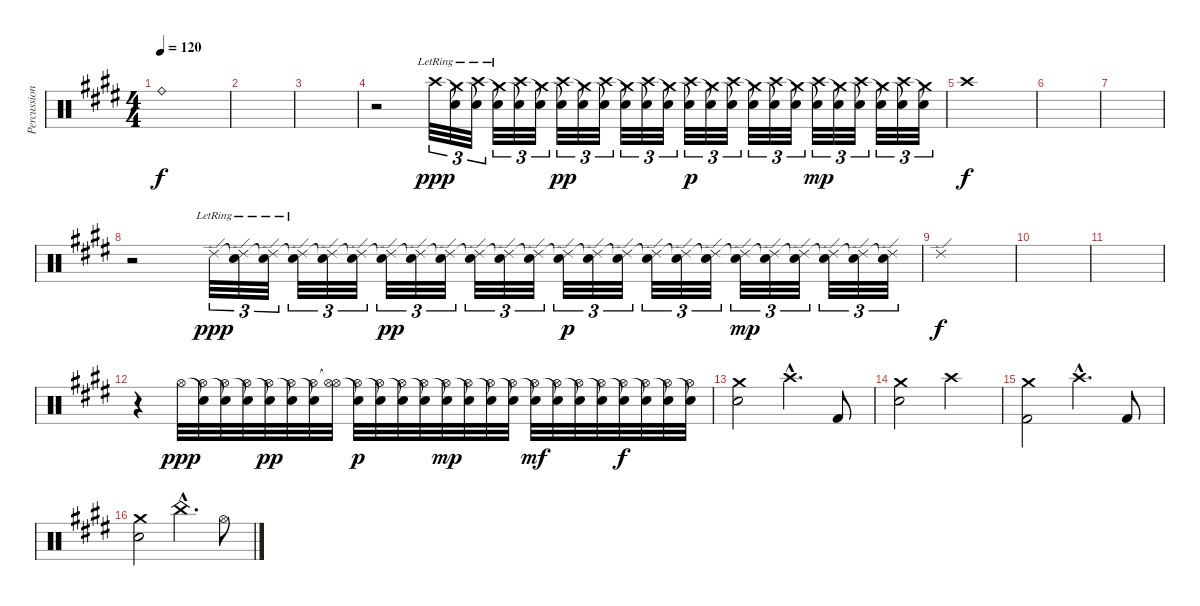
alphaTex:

\track ("Percussion" "Percussion") {instrument percussion}
\staff {score}
\articulation defaults
\ts (4 4)
\tempo 120
\clef neutral
\ks c#minor "Ride (bell)".1{dy f}
|
|
|
r.2 "Crash high (hit)"{lr}.32{tu (3 2) dy ppp} ("Snare (hit)"{t} "Crash medium (hit)"{lr}).32{tu (3 2)} ("Crash high (hit)"{lr} "Snare (hit)"{t}).32{tu (3 2)} ("Snare (hit)"{t} "Crash medium (hit)"{lr}).32{tu (3 2)} ("Crash high (hit)" "Snare (hit)"{t}).32{tu (3 2)} ("Snare (hit)"{t} "Crash medium (hit)").32{tu (3 2)} ("Crash high (hit)" "Snare (hit)"{t}).32{tu (3 2) dy pp} ("Snare (hit)"{t} "Crash medium (hit)").32{tu (3 2)} ("Crash high (hit)" "Snare (hit)"{t}).32{tu (3 2)} ("Snare (hit)"{t} "Crash medium (hit)").32{tu (3 2)} ("Crash high (hit)" "Snare (hit)"{t}).32{tu (3 2)} ("Snare (hit)"{t} "Crash medium (hit)").32{tu (3 2)} ("Crash high (hit)" "Snare (hit)"{t}).32{tu (3 2) dy p} ("Snare (hit)"{t} "Crash medium (hit)").32{tu (3 2)} ("Crash high (hit)" "Snare (hit)"{t}).32{tu (3 2)} ("Snare (hit)"{t} "Crash medium (hit)").32{tu (3 2)} ("Crash high (hit)" "Snare (hit)"{t}).32{tu (3 2)} ("Snare (hit)"{t} "Crash medium (hit)").32{tu (3 2)} ("Crash high (hit)" "Snare (hit)"{t}).32{tu (3 2) dy mp} ("Snare (hit)"{t} "Crash medium (hit)").32{tu (3 2)} ("Crash high (hit)" "Snare (hit)"{t}).32{tu (3 2)} ("Snare (hit)"{t} "Crash medium (hit)").32{tu (3 2)} ("Crash high (hit)" "Snare (hit)"{t}).32{tu (3 2)} ("Snare (hit)"{t} "Crash medium (hit)").32{tu (3 2)} |
"Crash high (hit)".1{dy f} |
|
|
r.2 "Ride (edge) 2"{lr}.32{tu (3 2) dy ppp} ("Snare (hit)"{t} "Ride (edge) 2"{lr}).32{tu (3 2)} ("Ride (edge) 2"{lr} "Snare (hit)"{t}).32{tu (3 2)} ("Snare (hit)"{t} "Ride (edge) 2"{lr}).32{tu (3 2)} ("Ride (edge) 2" "Snare (hit)"{t}).32{tu (3 2)} ("Snare (hit)"{t} "Ride (edge) 2").32{tu (3 2)} ("Ride (edge) 2" "Snare (hit)"{t}).32{tu (3 2) dy pp} ("Snare (hit)"{t} "Ride (edge) 2").32{tu (3 2)} ("Ride (edge) 2" "Snare (hit)"{t}).32{tu (3 2)} ("Snare (hit)"{t} "Ride (edge) 2").32{tu (3 2)} ("Ride (edge) 2" "Snare (hit)"{t}).32{tu (3 2)} ("Snare (hit)"{t} "Ride (edge) 2").32{tu (3 2)} ("Ride (edge) 2" "Snare (hit)"{t}).32{tu (3 2) dy p} ("Snare (hit)"{t} "Ride (edge) 2").32{tu (3 2)} ("Ride (edge) 2" "Snare (hit)"{t}).32{tu (3 2)} ("Snare (hit)"{t} "Ride (edge) 2").32{tu (3 2)} ("Ride (edge) 2" "Snare (hit)"{t}).32{tu (3 2)} ("Snare (hit)"{t} "Ride (edge) 2").32{tu (3 2)} ("Ride (edge) 2" "Snare (hit)"{t}).32{tu (3 2) dy mp} ("Snare (hit)"{t} "Ride (edge) 2").32{tu (3 2)} ("Ride (edge) 2" "Snare (hit)"{t}).32{tu (3 2)} ("Snare (hit)"{t} "Ride (edge) 2").32{tu (3 2)} ("Ride (edge) 2" "Snare (hit)"{t}).32{tu (3 2)} ("Snare (hit)"{t} "Ride (edge) 2").32{tu (3 2)} |
"Ride (edge) 2".1{dy f} |
|
|
r.4 "Hi-Hat (open)".32{dy ppp} ("Snare (hit)"{t} "Hi-Hat (open)").32 ("Hi-Hat (open)" "Snare (hit)"{t}).32 ("Snare (hit)"{t} "Hi-Hat (open)").32 ("Hi-Hat (open)" "Snare (hit)"{t}).32{dy pp} ("Snare (hit)"{t} "Hi-Hat (open)").32 ("Hi-Hat (open)" "Snare (hit)"{t}).32 ("Hi-Hat (open)"{t} "Hi-Hat (open)").32 ("Hi-Hat (open)" "Snare (hit)"{t}).32{dy p} ("Snare (hit)"{t} "Hi-Hat (open)").32 ("Hi-Hat (open)" "Snare (hit)"{t}).32 ("Snare (hit)"{t} "Hi-Hat (open)").32 ("Hi-Hat (open)" "Snare (hit)"{t}).32{dy mp} ("Snare (hit)"{t} "Hi-Hat (open)").32 ("Hi-Hat (open)" "Snare (hit)"{t}).32 ("Snare (hit)"{t} "Hi-Hat (open)").32 ("Hi-Hat (open)" "Snare (hit)"{t}).32{dy mf} ("Snare (hit)"{t} "Hi-Hat (open)").32 ("Hi-Hat (open)" "Snare (hit)"{t}).32 ("Snare (hit)"{t} "Hi-Hat (open)").32 ("Hi-Hat (open)" "Snare (hit)"{t}).32{dy f} ("Snare (hit)"{t} "Hi-Hat (open)").32 ("Hi-Hat (open)" "Snare (hit)"{t}).32 ("Snare (hit)"{t} "Hi-Hat (open)").32 |
("Crash medium (hit)" "Snare (hit) 2").2 "Crash high (hit)"{hac}.4{d} "Kick (hit) 2".8 |
("Crash medium (hit)" "Snare (hit) 2").2 "Crash high (hit)".2 |
("Crash medium (hit)" "Kick (hit) 2").2 "Crash high (hit)"{hac}.4{d} "Kick (hit) 2".8 |
("Crash medium (hit)" "Snare (hit) 2").2 "China (hit)"{hac}.4{d} "Hi-Hat (open)".8
